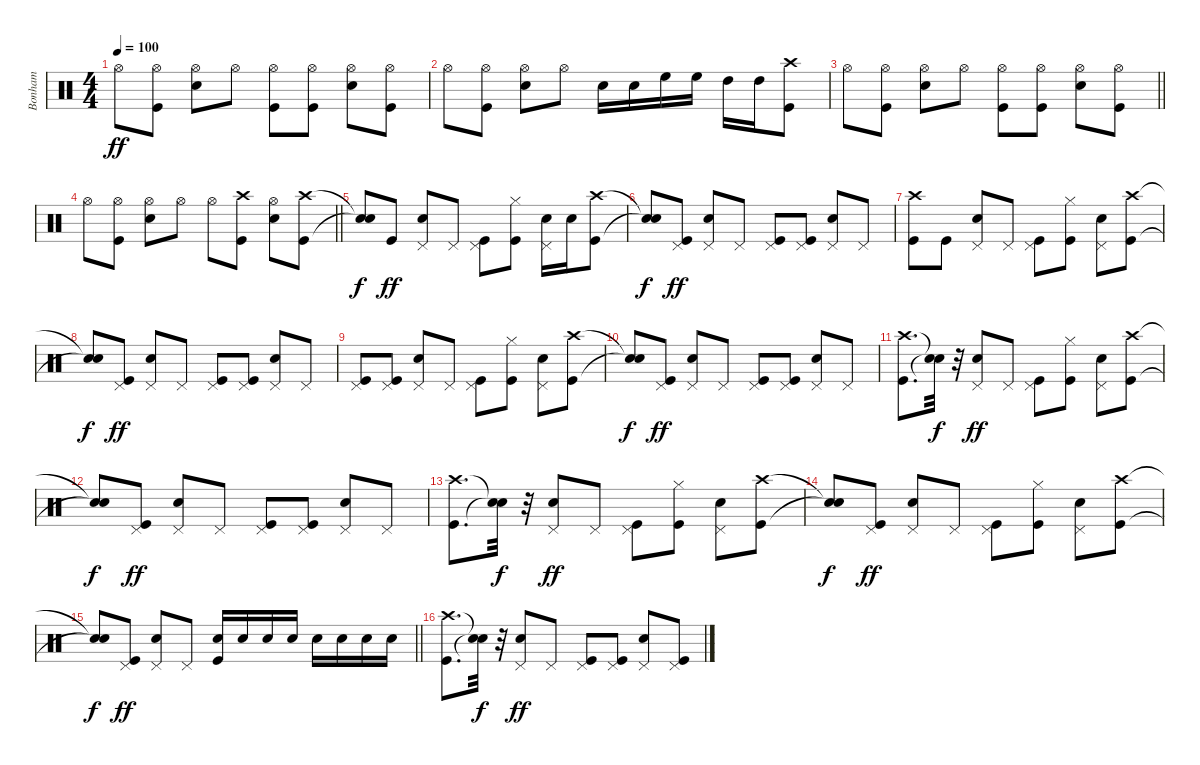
\track ("Bonham" "Bonham") {instrument percussion}
\staff {score}
\articulation defaults
\ts (4 4)
\tempo 100
\clef neutral
\ks c "Hi-Hat (open)".8{dy ff}
("Kick (hit)" "Hi-Hat (open)").8 ("Snare (hit) 2" "Hi-Hat (open)").8 "Hi-Hat (open)".8 ("Kick (hit)" "Hi-Hat (open)").8 ("Kick (hit)" "Hi-Hat (open)").8 ("Snare (hit) 2" "Hi-Hat (open)").8 ("Kick (hit)" "Hi-Hat (open)").8 |
"Hi-Hat (open)".8 ("Kick (hit)" "Hi-Hat (open)").8 ("Snare (hit) 2" "Hi-Hat (open)").8 "Hi-Hat (open)".8 "Snare (hit) 2".16 "Snare (hit) 2".16 "High Floor Tom (hit)".16 "High Floor Tom (hit)".16 "High Tom (hit)".16 "High Tom (hit)".16 ("Kick (hit)" "Crash high (hit)").8 |
\barLineRight lightlight "Hi-Hat (open)".8
("Kick (hit)" "Hi-Hat (open)").8 ("Snare (hit) 2" "Hi-Hat (open)").8 "Hi-Hat (open)".8 ("Kick (hit)" "Hi-Hat (open)").8 ("Kick (hit)" "Hi-Hat (open)").8 ("Snare (hit) 2" "Hi-Hat (open)").8 ("Kick (hit)" "Hi-Hat (open)").8 |
\barLineRight lightlight "Hi-Hat (open)".8
("Kick (hit)" "Hi-Hat (open)").8 ("Snare (hit) 2" "Hi-Hat (open)").8 "Hi-Hat (open)".8 "Hi-Hat (open)".8 ("Kick (hit)" "Crash high (hit)").8 ("Snare (hit) 2" "Hi-Hat (open)").8 ("Kick (hit)" "Crash high (hit)").8 |
("Snare (hit)"{t} "Snare (hit)"{t}).8{dy f} "Kick (hit)".8{dy ff} ("Snare (hit) 2" "Pedal Hi-Hat (hit)").8 "Pedal Hi-Hat (hit)".8 ("Kick (hit)" "Pedal Hi-Hat (hit)").8 ("Kick (hit)" "Hi-Hat (closed)").8 ("Snare (hit) 2" "Pedal Hi-Hat (hit)").16 "Snare (hit) 2".16 ("Kick (hit)" "Crash high (hit)").8 |
("Snare (hit)"{t} "Snare (hit)"{t}).8{dy f} ("Kick (hit)" "Pedal Hi-Hat (hit)").8{dy ff} ("Snare (hit) 2" "Pedal Hi-Hat (hit)").8 "Pedal Hi-Hat (hit)".8 ("Kick (hit)" "Pedal Hi-Hat (hit)").8 ("Kick (hit)" "Pedal Hi-Hat (hit)").8 ("Snare (hit) 2" "Pedal Hi-Hat (hit)").8 "Pedal Hi-Hat (hit)".8 |
("Kick (hit)" "Crash high (hit)").8 "Kick (hit)".8 ("Snare (hit) 2" "Pedal Hi-Hat (hit)").8 "Pedal Hi-Hat (hit)".8 ("Kick (hit)" "Pedal Hi-Hat (hit)").8 ("Kick (hit)" "Hi-Hat (closed)").8 ("Snare (hit) 2" "Pedal Hi-Hat (hit)").8 ("Kick (hit)" "Crash high (hit)").8 |
("Snare (hit)"{t} "Snare (hit)"{t}).8{dy f} ("Kick (hit)" "Pedal Hi-Hat (hit)").8{dy ff} ("Snare (hit) 2" "Pedal Hi-Hat (hit)").8 "Pedal Hi-Hat (hit)".8 ("Kick (hit)" "Pedal Hi-Hat (hit)").8 ("Kick (hit)" "Pedal Hi-Hat (hit)").8 ("Snare (hit) 2" "Pedal Hi-Hat (hit)").8 "Pedal Hi-Hat (hit)".8 |
("Kick (hit)" "Pedal Hi-Hat (hit)").8 ("Kick (hit)" "Pedal Hi-Hat (hit)").8 ("Snare (hit) 2" "Pedal Hi-Hat (hit)").8 "Pedal Hi-Hat (hit)".8 ("Kick (hit)" "Pedal Hi-Hat (hit)").8 ("Kick (hit)" "Hi-Hat (closed)").8 ("Snare (hit) 2" "Pedal Hi-Hat (hit)").8 ("Kick (hit)" "Crash high (hit)").8 |
("Snare (hit)"{t} "Snare (hit)"{t}).8{dy f} ("Kick (hit)" "Pedal Hi-Hat (hit)").8{dy ff} ("Snare (hit) 2" "Pedal Hi-Hat (hit)").8 "Pedal Hi-Hat (hit)".8 ("Kick (hit)" "Pedal Hi-Hat (hit)").8 ("Kick (hit)" "Pedal Hi-Hat (hit)").8 ("Snare (hit) 2" "Pedal Hi-Hat (hit)").8 "Pedal Hi-Hat (hit)".8 |
("Kick (hit)" "Crash high (hit)").8{d} ("Snare (hit)"{t} "Snare (hit)"{t}).32{dy f} r.32 ("Snare (hit) 2" "Pedal Hi-Hat (hit)").8{dy ff} "Pedal Hi-Hat (hit)".8 ("Kick (hit)" "Pedal Hi-Hat (hit)").8 ("Kick (hit)" "Hi-Hat (closed)").8 ("Snare (hit) 2" "Pedal Hi-Hat (hit)").8 ("Kick (hit)" "Crash high (hit)").8 |
("Snare (hit)"{t} "Snare (hit)"{t}).8{dy f} ("Kick (hit)" "Pedal Hi-Hat (hit)").8{dy ff} ("Snare (hit) 2" "Pedal Hi-Hat (hit)").8 "Pedal Hi-Hat (hit)".8 ("Kick (hit)" "Pedal Hi-Hat (hit)").8 ("Kick (hit)" "Pedal Hi-Hat (hit)").8 ("Snare (hit) 2" "Pedal Hi-Hat (hit)").8 "Pedal Hi-Hat (hit)".8 |
("Kick (hit)" "Crash high (hit)").8{d} ("Snare (hit)"{t} "Snare (hit)"{t}).32{dy f} r.32 ("Snare (hit) 2" "Pedal Hi-Hat (hit)").8{dy ff} "Pedal Hi-Hat (hit)".8 ("Kick (hit)" "Pedal Hi-Hat (hit)").8 ("Kick (hit)" "Hi-Hat (closed)").8 ("Snare (hit) 2" "Pedal Hi-Hat (hit)").8 ("Kick (hit)" "Crash high (hit)").8 |
("Snare (hit)"{t} "Snare (hit)"{t}).8{dy f} ("Kick (hit)" "Pedal Hi-Hat (hit)").8{dy ff} ("Snare (hit) 2" "Pedal Hi-Hat (hit)").8 "Pedal Hi-Hat (hit)".8 ("Kick (hit)" "Pedal Hi-Hat (hit)").8 ("Kick (hit)" "Hi-Hat (closed)").8 ("Snare (hit) 2" "Pedal Hi-Hat (hit)").8 ("Kick (hit)" "Crash high (hit)").8 |
\barLineRight lightlight
("Snare (hit)"{t} "Snare (hit)"{t}).8{dy f} ("Kick (hit)" "Pedal Hi-Hat (hit)").8{dy ff} ("Snare (hit) 2" "Pedal Hi-Hat (hit)").8 "Pedal Hi-Hat (hit)".8 ("Kick (hit)" "Snare (hit) 2").16 "Snare (hit) 2".16 "Snare (hit) 2".16 "Snare (hit) 2".16 "Snare (hit) 2".16 "Snare (hit) 2".16 "Snare (hit) 2".16 "Snare (hit) 2".16 |
("Kick (hit)" "Crash high (hit)").8{d} ("Snare (hit)"{t} "Snare (hit)"{t}).32{dy f} r.32 ("Snare (hit) 2" "Pedal Hi-Hat (hit)").8{dy ff} "Pedal Hi-Hat (hit)".8 ("Kick (hit)" "Pedal Hi-Hat (hit)").8 ("Kick (hit)" "Pedal Hi-Hat (hit)").8 ("Snare (hit) 2" "Pedal Hi-Hat (hit)").8 ("Kick (hit)" "Pedal Hi-Hat (hit)").8
